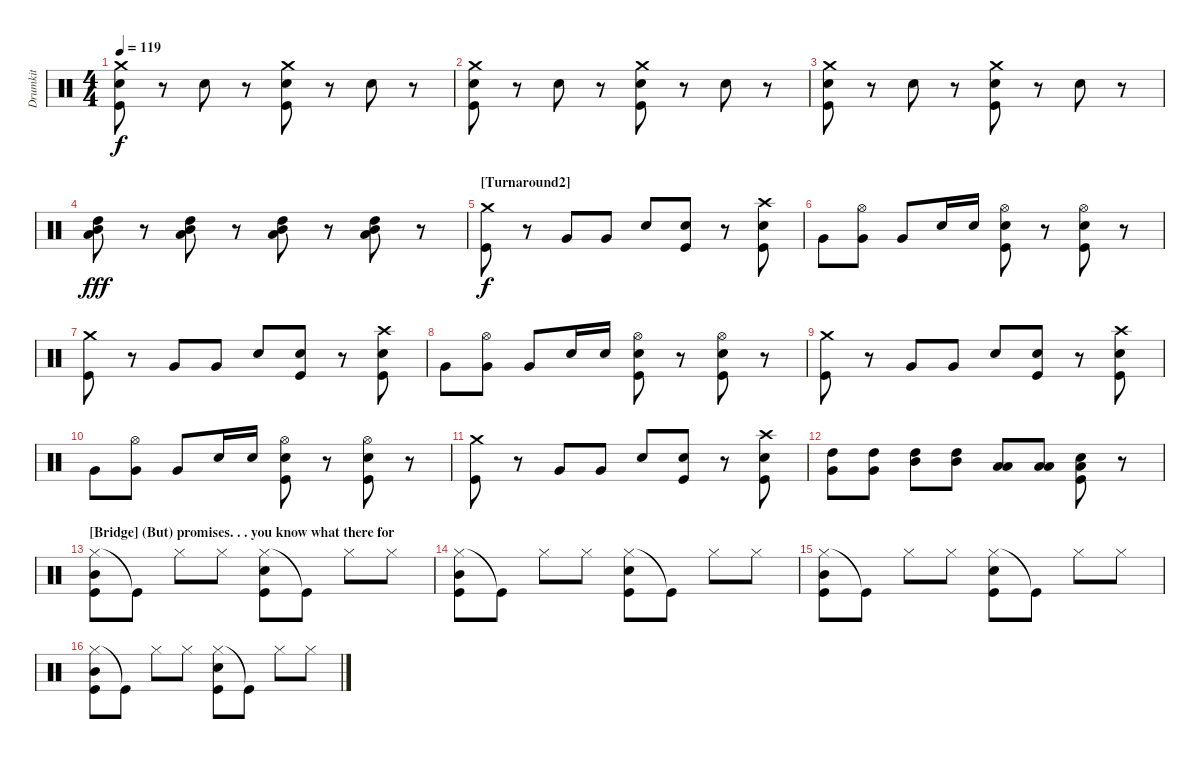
\track ("Drumkit" "Drumkit") {instrument percussion}
\staff {score}
\articulation defaults
\ts (4 4)
\tempo 119
\clef neutral
\ks c
("Crash medium (hit)" "Snare (hit) 2" "Kick (hit)").8{dy f} r.8 "Snare (hit) 2".8 r.8 ("Crash medium (hit)" "Snare (hit) 2" "Kick (hit)").8 r.8 "Snare (hit) 2".8 r.8 |
("Crash medium (hit)" "Snare (hit) 2" "Kick (hit)").8 r.8 "Snare (hit) 2".8 r.8 ("Crash medium (hit)" "Snare (hit) 2" "Kick (hit)").8 r.8 "Snare (hit) 2".8 r.8 |
("Crash medium (hit)" "Snare (hit) 2" "Kick (hit)").8 r.8 "Snare (hit) 2".8 r.8 ("Crash medium (hit)" "Snare (hit) 2" "Kick (hit)").8 r.8 "Snare (hit) 2".8 r.8 |
("High Tom (hit)" "Mid Tom (hit)" "Low Tom (hit)").8{dy fff} r.8 ("High Tom (hit)" "Mid Tom (hit)" "Low Tom (hit)").8 r.8 ("High Tom (hit)" "Mid Tom (hit)" "Low Tom (hit)").8 r.8 ("High Tom (hit)" "Mid Tom (hit)" "Low Tom (hit)").8 r.8 |
\section ("" "[Turnaround2]  ")
("Crash medium (hit)" "Kick (hit)").8{dy f} r.8 "Very Low Tom (hit)".8 "Very Low Tom (hit)".8 "Snare (hit) 2".8 ("Snare (hit) 2" "Kick (hit)").8 r.8 ("Crash high (hit)" "Snare (hit) 2" "Kick (hit)").8 |
"Very Low Tom (hit)".8 ("Hi-Hat (open)" "Very Low Tom (hit)").8 "Very Low Tom (hit)".8 "Snare (hit) 2".16 "Snare (hit) 2".16 ("Hi-Hat (open)" "Snare (hit) 2" "Kick (hit)").8 r.8 ("Hi-Hat (open)" "Snare (hit) 2" "Kick (hit)").8 r.8 |
("Crash medium (hit)" "Kick (hit)").8 r.8 "Very Low Tom (hit)".8 "Very Low Tom (hit)".8 "Snare (hit) 2".8 ("Snare (hit) 2" "Kick (hit)").8 r.8 ("Crash high (hit)" "Snare (hit) 2" "Kick (hit)").8 |
"Very Low Tom (hit)".8 ("Hi-Hat (open)" "Very Low Tom (hit)").8 "Very Low Tom (hit)".8 "Snare (hit) 2".16 "Snare (hit) 2".16 ("Hi-Hat (open)" "Snare (hit) 2" "Kick (hit)").8 r.8 ("Hi-Hat (open)" "Snare (hit) 2" "Kick (hit)").8 r.8 |
("Crash medium (hit)" "Kick (hit)").8 r.8 "Very Low Tom (hit)".8 "Very Low Tom (hit)".8 "Snare (hit) 2".8 ("Snare (hit) 2" "Kick (hit)").8 r.8 ("Crash high (hit)" "Snare (hit) 2" "Kick (hit)").8 |
"Very Low Tom (hit)".8 ("Hi-Hat (open)" "Very Low Tom (hit)").8 "Very Low Tom (hit)".8 "Snare (hit) 2".16 "Snare (hit) 2".16 ("Hi-Hat (open)" "Snare (hit) 2" "Kick (hit)").8 r.8 ("Hi-Hat (open)" "Snare (hit) 2" "Kick (hit)").8 r.8 |
("Crash medium (hit)" "Kick (hit)").8 r.8 "Very Low Tom (hit)".8 "Very Low Tom (hit)".8 "Snare (hit) 2".8 ("Snare (hit) 2" "Kick (hit)").8 r.8 ("Crash high (hit)" "Snare (hit) 2" "Kick (hit)").8 |
("High Tom (hit)" "Very Low Tom (hit)").8 ("High Tom (hit)" "Very Low Tom (hit)").8 ("Mid Tom (hit)" "High Tom (hit)").8 ("Mid Tom (hit)" "High Tom (hit)").8 ("Low Tom (hit)" "Low Floor Tom (hit)").8 ("Low Tom (hit)" "Low Floor Tom (hit)").8 ("Snare (hit) 2" "Low Tom (hit)" "Kick (hit)").8 r.8 |
\section ("" "[Bridge] (But) promises. . . you know what there for")
("Hi-Hat (closed)" "Mid Tom (hit)" "Kick (hit)").8 "Kick (hit)"{t}.8 "Hi-Hat (closed)".8 "Hi-Hat (closed)".8 ("Hi-Hat (closed)" "Snare (hit) 2" "Kick (hit)").8 "Kick (hit)"{t}.8 "Hi-Hat (closed)".8 "Hi-Hat (closed)".8 |
("Hi-Hat (closed)" "Mid Tom (hit)" "Kick (hit)").8 "Kick (hit)"{t}.8 "Hi-Hat (closed)".8 "Hi-Hat (closed)".8 ("Hi-Hat (closed)" "Snare (hit) 2" "Kick (hit)").8 "Kick (hit)"{t}.8 "Hi-Hat (closed)".8 "Hi-Hat (closed)".8 |
("Hi-Hat (closed)" "Mid Tom (hit)" "Kick (hit)").8 "Kick (hit)"{t}.8 "Hi-Hat (closed)".8 "Hi-Hat (closed)".8 ("Hi-Hat (closed)" "Snare (hit) 2" "Kick (hit)").8 "Kick (hit)"{t}.8 "Hi-Hat (closed)".8 "Hi-Hat (closed)".8 |
("Hi-Hat (closed)" "Mid Tom (hit)" "Kick (hit)").8 "Kick (hit)"{t}.8 "Hi-Hat (closed)".8 "Hi-Hat (closed)".8 ("Hi-Hat (closed)" "Snare (hit) 2" "Kick (hit)").8 "Kick (hit)"{t}.8 "Hi-Hat (closed)".8 "Hi-Hat (closed)".8
